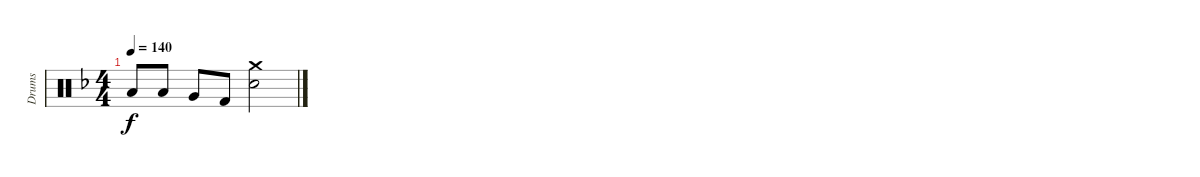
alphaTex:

\track ("Drums" "Drums") {instrument percussion}
\staff {score}
\articulation defaults
\ts (4 4)
\tempo 140
\clef neutral
\ks dminor "Low Tom (hit)".8{dy f} "Low Tom (hit)".8 "Very Low Tom (hit)".8 "Kick (hit) 2".8
("Crash medium (hit)" "Electric Snare (hit)").2
